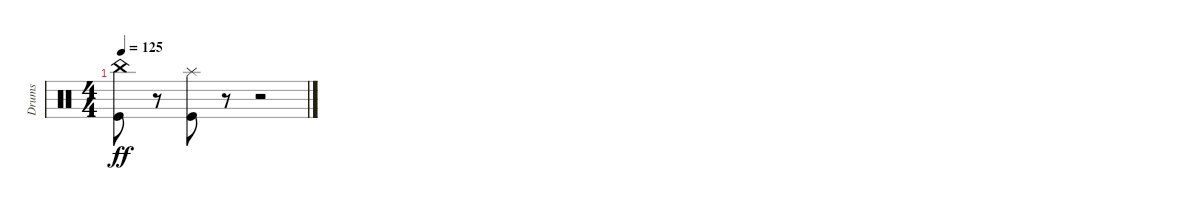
\track ("Drums" "Drums") {instrument percussion}
\staff {score}
\articulation defaults
\ts (4 4)
\tempo 125
\clef neutral
\ks c
("Kick (hit)" "China (hit)").8{dy ff} r.8 ("Kick (hit)" "Splash (hit)").8 r.8 r.2
